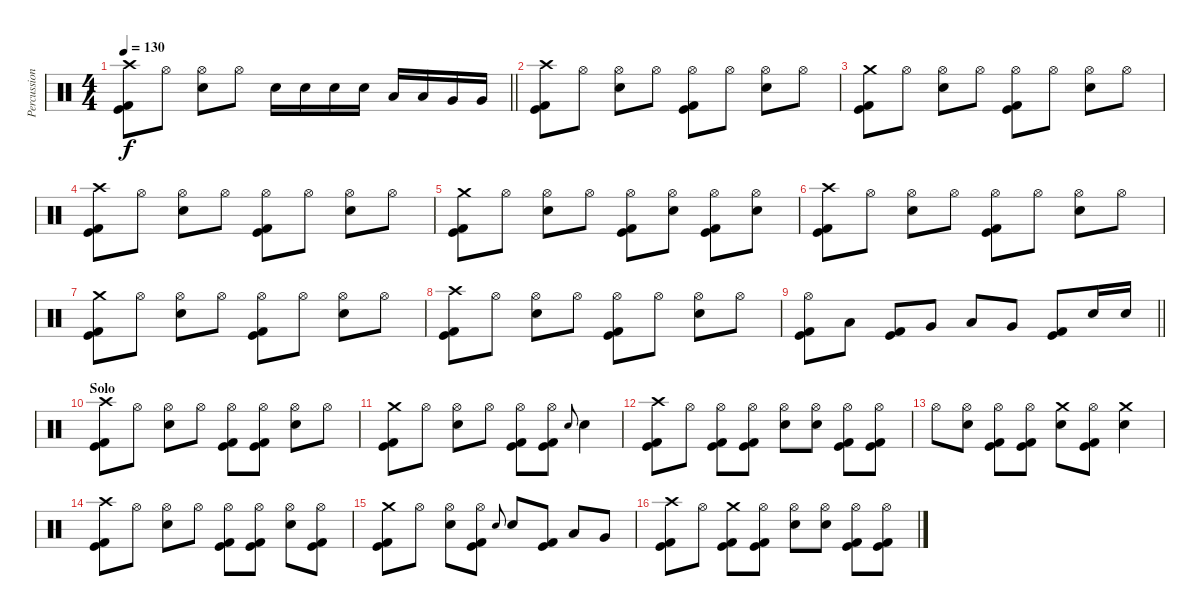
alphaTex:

\track ("Percussion" "Percussion") {instrument percussion}
\staff {score}
\articulation defaults
\ts (4 4)
\tempo 130
\clef neutral
\barLineRight lightlight
\ks c
("Crash high (hit)" "Kick (hit)" "Kick (hit) 2").8{dy f} "Hi-Hat (open)".8 ("Hi-Hat (open)" "Electric Snare (hit)").8 "Hi-Hat (open)".8 "Electric Snare (hit)".16 "Electric Snare (hit)".16 "Electric Snare (hit)".16 "Electric Snare (hit)".16 "Low Tom (hit)".16 "Low Tom (hit)".16 "Very Low Tom (hit)".16 "Very Low Tom (hit)".16 |
\section ("" "")
("Crash high (hit)" "Kick (hit)" "Kick (hit) 2").8 "Hi-Hat (open)".8 ("Hi-Hat (open)" "Electric Snare (hit)").8 "Hi-Hat (open)".8 ("Hi-Hat (open)" "Kick (hit)" "Kick (hit) 2").8 "Hi-Hat (open)".8 ("Hi-Hat (open)" "Electric Snare (hit)").8 "Hi-Hat (open)".8 |
("Crash medium (hit)" "Kick (hit)" "Kick (hit) 2").8 "Hi-Hat (open)".8 ("Hi-Hat (open)" "Electric Snare (hit)").8 "Hi-Hat (open)".8 ("Hi-Hat (open)" "Kick (hit)" "Kick (hit) 2").8 "Hi-Hat (open)".8 ("Hi-Hat (open)" "Electric Snare (hit)").8 "Hi-Hat (open)".8 |
("Crash high (hit)" "Kick (hit)" "Kick (hit) 2").8 "Hi-Hat (open)".8 ("Hi-Hat (open)" "Electric Snare (hit)").8 "Hi-Hat (open)".8 ("Hi-Hat (open)" "Kick (hit)" "Kick (hit) 2").8 "Hi-Hat (open)".8 ("Hi-Hat (open)" "Electric Snare (hit)").8 "Hi-Hat (open)".8 |
("Crash medium (hit)" "Kick (hit)" "Kick (hit) 2").8 "Hi-Hat (open)".8 ("Hi-Hat (open)" "Electric Snare (hit)").8 "Hi-Hat (open)".8 ("Hi-Hat (open)" "Kick (hit)" "Kick (hit) 2").8 ("Hi-Hat (open)" "Electric Snare (hit)").8 ("Hi-Hat (open)" "Kick (hit)" "Kick (hit) 2").8 ("Hi-Hat (open)" "Electric Snare (hit)").8 |
("Crash high (hit)" "Kick (hit)" "Kick (hit) 2").8 "Hi-Hat (open)".8 ("Hi-Hat (open)" "Electric Snare (hit)").8 "Hi-Hat (open)".8 ("Hi-Hat (open)" "Kick (hit)" "Kick (hit) 2").8 "Hi-Hat (open)".8 ("Hi-Hat (open)" "Electric Snare (hit)").8 "Hi-Hat (open)".8 |
("Crash medium (hit)" "Kick (hit)" "Kick (hit) 2").8 "Hi-Hat (open)".8 ("Hi-Hat (open)" "Electric Snare (hit)").8 "Hi-Hat (open)".8 ("Hi-Hat (open)" "Kick (hit)" "Kick (hit) 2").8 "Hi-Hat (open)".8 ("Hi-Hat (open)" "Electric Snare (hit)").8 "Hi-Hat (open)".8 |
("Crash high (hit)" "Kick (hit)" "Kick (hit) 2").8 "Hi-Hat (open)".8 ("Hi-Hat (open)" "Electric Snare (hit)").8 "Hi-Hat (open)".8 ("Hi-Hat (open)" "Kick (hit)" "Kick (hit) 2").8 "Hi-Hat (open)".8 ("Hi-Hat (open)" "Electric Snare (hit)").8 "Hi-Hat (open)".8 |
\barLineRight lightlight
("Hi-Hat (open)" "Kick (hit)" "Kick (hit) 2").8 "Low Tom (hit)".8 ("Kick (hit)" "Kick (hit) 2").8 "Very Low Tom (hit)".8 "Low Tom (hit)".8 "Very Low Tom (hit)".8 ("Kick (hit)" "Kick (hit) 2").8 "Electric Snare (hit)".16 "Electric Snare (hit)".16 |
\section ("" "Solo")
("Crash high (hit)" "Kick (hit)" "Kick (hit) 2").8 "Hi-Hat (open)".8 ("Hi-Hat (open)" "Electric Snare (hit)").8 "Hi-Hat (open)".8 ("Hi-Hat (open)" "Kick (hit)" "Kick (hit) 2").8 ("Hi-Hat (open)" "Kick (hit)" "Kick (hit) 2").8 ("Hi-Hat (open)" "Electric Snare (hit)").8 "Hi-Hat (open)".8 |
("Crash medium (hit)" "Kick (hit)" "Kick (hit) 2").8 "Hi-Hat (open)".8 ("Hi-Hat (open)" "Electric Snare (hit)").8 "Hi-Hat (open)".8 ("Hi-Hat (open)" "Kick (hit)" "Kick (hit) 2").8 ("Hi-Hat (open)" "Kick (hit)" "Kick (hit) 2").8 "Electric Snare (hit)".8{gr onbeat} "Electric Snare (hit)".4 |
("Crash high (hit)" "Kick (hit)" "Kick (hit) 2").8 "Hi-Hat (open)".8 ("Hi-Hat (open)" "Kick (hit)" "Kick (hit) 2").8 ("Hi-Hat (open)" "Kick (hit)" "Kick (hit) 2").8 ("Hi-Hat (open)" "Electric Snare (hit)").8 ("Hi-Hat (open)" "Electric Snare (hit)").8 ("Hi-Hat (open)" "Kick (hit)" "Kick (hit) 2").8 ("Hi-Hat (open)" "Kick (hit)" "Kick (hit) 2").8 |
"Hi-Hat (open)".8 ("Hi-Hat (open)" "Electric Snare (hit)").8 ("Hi-Hat (open)" "Kick (hit)" "Kick (hit) 2").8 ("Hi-Hat (open)" "Kick (hit)" "Kick (hit) 2").8 ("Crash medium (hit)" "Electric Snare (hit)").8 ("Hi-Hat (open)" "Kick (hit)" "Kick (hit) 2").8 ("Crash medium (hit)" "Electric Snare (hit)").4 |
("Crash high (hit)" "Kick (hit)" "Kick (hit) 2").8 "Hi-Hat (open)".8 ("Hi-Hat (open)" "Electric Snare (hit)").8 "Hi-Hat (open)".8 ("Hi-Hat (open)" "Kick (hit)" "Kick (hit) 2").8 ("Hi-Hat (open)" "Kick (hit)" "Kick (hit) 2").8 ("Hi-Hat (open)" "Electric Snare (hit)").8 ("Hi-Hat (open)" "Kick (hit)" "Kick (hit) 2").8 |
("Crash medium (hit)" "Kick (hit)" "Kick (hit) 2").8 "Hi-Hat (open)".8 ("Hi-Hat (open)" "Electric Snare (hit)").8 ("Hi-Hat (open)" "Kick (hit)" "Kick (hit) 2").8 "Electric Snare (hit)".8{gr onbeat} "Electric Snare (hit)".8 ("Kick (hit)" "Kick (hit) 2").8 "Low Tom (hit)".8 "Very Low Tom (hit)".8 |
("Crash high (hit)" "Kick (hit)" "Kick (hit) 2").8 "Hi-Hat (open)".8 ("Crash medium (hit)" "Kick (hit)" "Kick (hit) 2").8 ("Hi-Hat (open)" "Kick (hit)" "Kick (hit) 2").8 ("Hi-Hat (open)" "Electric Snare (hit)").8 ("Hi-Hat (open)" "Electric Snare (hit)").8 ("Hi-Hat (open)" "Kick (hit)" "Kick (hit) 2").8 ("Hi-Hat (open)" "Kick (hit)" "Kick (hit) 2").8
